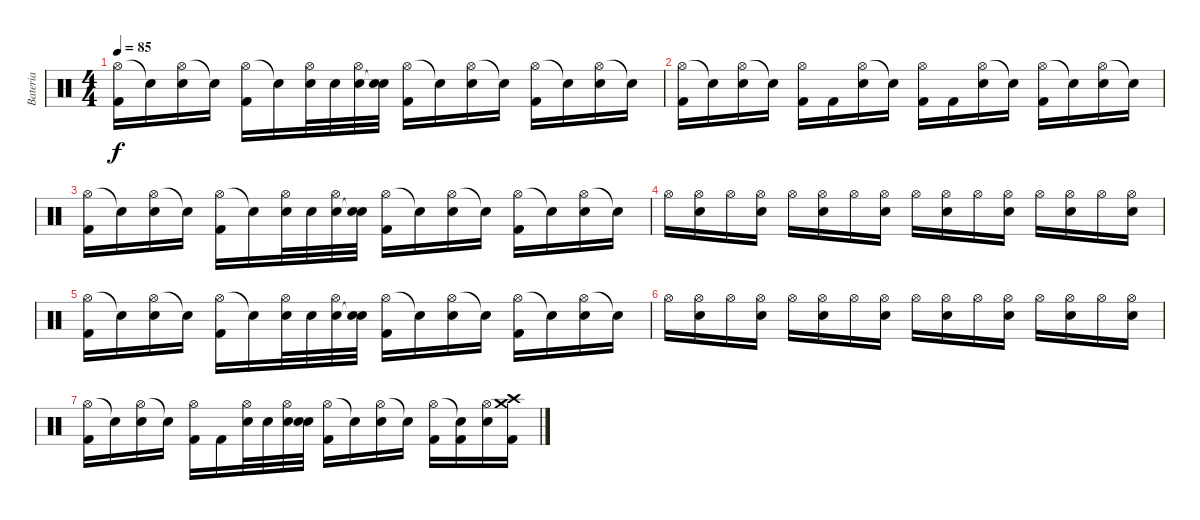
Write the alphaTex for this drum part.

\track ("Bateria" "Bateria") {instrument percussion}
\staff {score}
\articulation defaults
\ts (4 4)
\tempo 85
\clef neutral
\ks c
("Hi-Hat (open)" "Kick (hit) 2").16{dy f} "Snare (hit)"{t}.16 ("Hi-Hat (open)" "Electric Snare (hit)").16 "Snare (hit)"{t}.16 ("Hi-Hat (open)" "Kick (hit) 2").16 "Snare (hit)"{t}.16 ("Hi-Hat (open)" "Electric Snare (hit)").32 "Electric Snare (hit)".32 ("Hi-Hat (open)" "Electric Snare (hit)").32 ("Electric Snare (hit)" "Snare (hit)"{t}).32 ("Hi-Hat (open)" "Kick (hit) 2").16 "Snare (hit)"{t}.16 ("Hi-Hat (open)" "Electric Snare (hit)").16 "Snare (hit)"{t}.16 ("Hi-Hat (open)" "Kick (hit) 2").16 "Snare (hit)"{t}.16 ("Hi-Hat (open)" "Electric Snare (hit)").16 "Snare (hit)"{t}.16 |
("Hi-Hat (open)" "Kick (hit) 2").16 "Snare (hit)"{t}.16 ("Hi-Hat (open)" "Electric Snare (hit)").16 "Snare (hit)"{t}.16 ("Hi-Hat (open)" "Kick (hit) 2").16 "Kick (hit) 2".16 ("Hi-Hat (open)" "Electric Snare (hit)").16 "Snare (hit)"{t}.16 ("Hi-Hat (open)" "Kick (hit) 2").16 "Kick (hit) 2".16 ("Hi-Hat (open)" "Electric Snare (hit)").16 "Snare (hit)"{t}.16 ("Hi-Hat (open)" "Kick (hit) 2").16 "Snare (hit)"{t}.16 ("Hi-Hat (open)" "Electric Snare (hit)").16 "Snare (hit)"{t}.16 |
("Hi-Hat (open)" "Kick (hit) 2").16 "Snare (hit)"{t}.16 ("Hi-Hat (open)" "Electric Snare (hit)").16 "Snare (hit)"{t}.16 ("Hi-Hat (open)" "Kick (hit) 2").16 "Snare (hit)"{t}.16 ("Hi-Hat (open)" "Electric Snare (hit)").32 "Electric Snare (hit)".32 ("Hi-Hat (open)" "Electric Snare (hit)").32 ("Electric Snare (hit)" "Snare (hit)"{t}).32 ("Hi-Hat (open)" "Kick (hit) 2").16 "Snare (hit)"{t}.16 ("Hi-Hat (open)" "Electric Snare (hit)").16 "Snare (hit)"{t}.16 ("Hi-Hat (open)" "Kick (hit) 2").16 "Snare (hit)"{t}.16 ("Hi-Hat (open)" "Electric Snare (hit)").16 "Snare (hit)"{t}.16 |
"Hi-Hat (open)".16 ("Hi-Hat (open)" "Electric Snare (hit)").16 "Hi-Hat (open)".16 ("Hi-Hat (open)" "Electric Snare (hit)").16 "Hi-Hat (open)".16 ("Hi-Hat (open)" "Electric Snare (hit)").16 "Hi-Hat (open)".16 ("Hi-Hat (open)" "Electric Snare (hit)").16 "Hi-Hat (open)".16 ("Hi-Hat (open)" "Electric Snare (hit)").16 "Hi-Hat (open)".16 ("Hi-Hat (open)" "Electric Snare (hit)").16 "Hi-Hat (open)".16 ("Hi-Hat (open)" "Electric Snare (hit)").16 "Hi-Hat (open)".16 ("Hi-Hat (open)" "Electric Snare (hit)").16 |
("Hi-Hat (open)" "Kick (hit) 2").16 "Snare (hit)"{t}.16 ("Hi-Hat (open)" "Electric Snare (hit)").16 "Snare (hit)"{t}.16 ("Hi-Hat (open)" "Kick (hit) 2").16 "Snare (hit)"{t}.16 ("Hi-Hat (open)" "Electric Snare (hit)").32 "Electric Snare (hit)".32 ("Hi-Hat (open)" "Electric Snare (hit)").32 ("Electric Snare (hit)" "Snare (hit)"{t}).32 ("Hi-Hat (open)" "Kick (hit) 2").16 "Snare (hit)"{t}.16 ("Hi-Hat (open)" "Electric Snare (hit)").16 "Snare (hit)"{t}.16 ("Hi-Hat (open)" "Kick (hit) 2").16 "Snare (hit)"{t}.16 ("Hi-Hat (open)" "Electric Snare (hit)").16 "Snare (hit)"{t}.16 |
"Hi-Hat (open)".16 ("Hi-Hat (open)" "Electric Snare (hit)").16 "Hi-Hat (open)".16 ("Hi-Hat (open)" "Electric Snare (hit)").16 "Hi-Hat (open)".16 ("Hi-Hat (open)" "Electric Snare (hit)").16 "Hi-Hat (open)".16 ("Hi-Hat (open)" "Electric Snare (hit)").16 "Hi-Hat (open)".16 ("Hi-Hat (open)" "Electric Snare (hit)").16 "Hi-Hat (open)".16 ("Hi-Hat (open)" "Electric Snare (hit)").16 "Hi-Hat (open)".16 ("Hi-Hat (open)" "Electric Snare (hit)").16 "Hi-Hat (open)".16 ("Hi-Hat (open)" "Electric Snare (hit)").16 |
("Hi-Hat (open)" "Kick (hit) 2").16 "Snare (hit)"{t}.16 ("Hi-Hat (open)" "Electric Snare (hit)").16 "Snare (hit)"{t}.16 ("Hi-Hat (open)" "Kick (hit) 2").16 "Kick (hit) 2".16 ("Hi-Hat (open)" "Electric Snare (hit)").32 "Electric Snare (hit)".32 ("Hi-Hat (open)" "Electric Snare (hit)").32 ("Electric Snare (hit)" "Snare (hit)"{t}).32 ("Hi-Hat (open)" "Kick (hit) 2").16 "Snare (hit)"{t}.16 ("Hi-Hat (open)" "Electric Snare (hit)").16 "Snare (hit)"{t}.16 ("Hi-Hat (open)" "Kick (hit) 2").16 ("Snare (hit)"{t} "Kick (hit) 2").16 ("Hi-Hat (open)" "Electric Snare (hit)").16 ("Crash medium (hit)" "Crash high (hit)" "Kick (hit) 2").16
